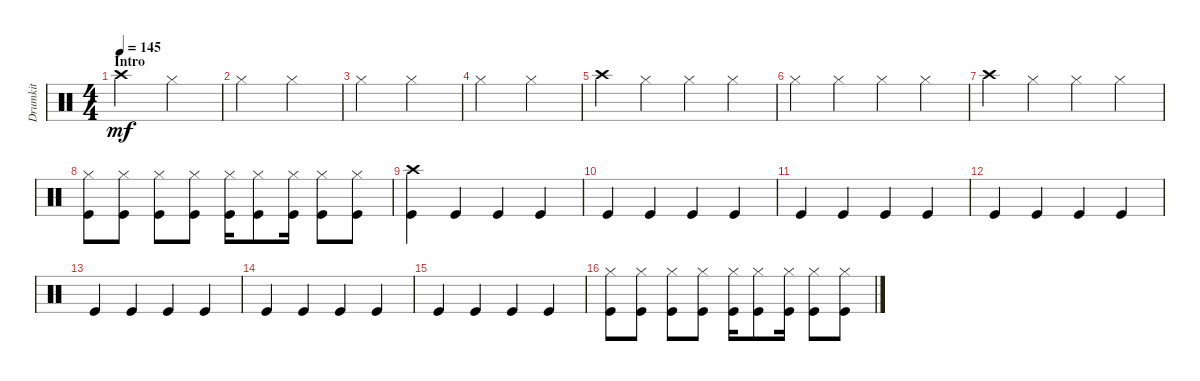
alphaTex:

\track ("Drumkit" "Drumkit") {instrument percussion}
\staff {score}
\articulation defaults
\ts (4 4)
\section ("" "Intro")
\tempo 145
\clef neutral
\ks c "Crash high (hit)".2{dy mf} "Hi-Hat (closed)".2
|
"Hi-Hat (closed)".2 "Hi-Hat (closed)".2 |
"Hi-Hat (closed)".2 "Hi-Hat (closed)".2 |
"Hi-Hat (closed)".2 "Hi-Hat (closed)".2 |
"Crash high (hit)".4 "Hi-Hat (closed)".4 "Hi-Hat (closed)".4 "Hi-Hat (closed)".4 |
"Hi-Hat (closed)".4 "Hi-Hat (closed)".4 "Hi-Hat (closed)".4 "Hi-Hat (closed)".4 |
"Crash high (hit)".4 "Hi-Hat (closed)".4 "Hi-Hat (closed)".4 "Hi-Hat (closed)".4 |
("Hi-Hat (closed)" "Kick (hit)").8 ("Hi-Hat (closed)" "Kick (hit)").8 ("Hi-Hat (closed)" "Kick (hit)").8 ("Hi-Hat (closed)" "Kick (hit)").8 ("Hi-Hat (closed)" "Kick (hit)").16 ("Hi-Hat (closed)" "Kick (hit)").8 ("Hi-Hat (closed)" "Kick (hit)").16 ("Hi-Hat (closed)" "Kick (hit)").8 ("Hi-Hat (closed)" "Kick (hit)").8 |
("Kick (hit)" "Crash high (hit)").4 "Kick (hit)".4 "Kick (hit)".4 "Kick (hit)".4 |
"Kick (hit)".4 "Kick (hit)".4 "Kick (hit)".4 "Kick (hit)".4 |
"Kick (hit)".4 "Kick (hit)".4 "Kick (hit)".4 "Kick (hit)".4 |
"Kick (hit)".4 "Kick (hit)".4 "Kick (hit)".4 "Kick (hit)".4 |
"Kick (hit)".4 "Kick (hit)".4 "Kick (hit)".4 "Kick (hit)".4 |
"Kick (hit)".4 "Kick (hit)".4 "Kick (hit)".4 "Kick (hit)".4 |
"Kick (hit)".4 "Kick (hit)".4 "Kick (hit)".4 "Kick (hit)".4 |
("Hi-Hat (closed)" "Kick (hit)").8 ("Hi-Hat (closed)" "Kick (hit)").8 ("Hi-Hat (closed)" "Kick (hit)").8 ("Hi-Hat (closed)" "Kick (hit)").8 ("Hi-Hat (closed)" "Kick (hit)").16 ("Hi-Hat (closed)" "Kick (hit)").8 ("Hi-Hat (closed)" "Kick (hit)").16 ("Hi-Hat (closed)" "Kick (hit)").8 ("Hi-Hat (closed)" "Kick (hit)").8
